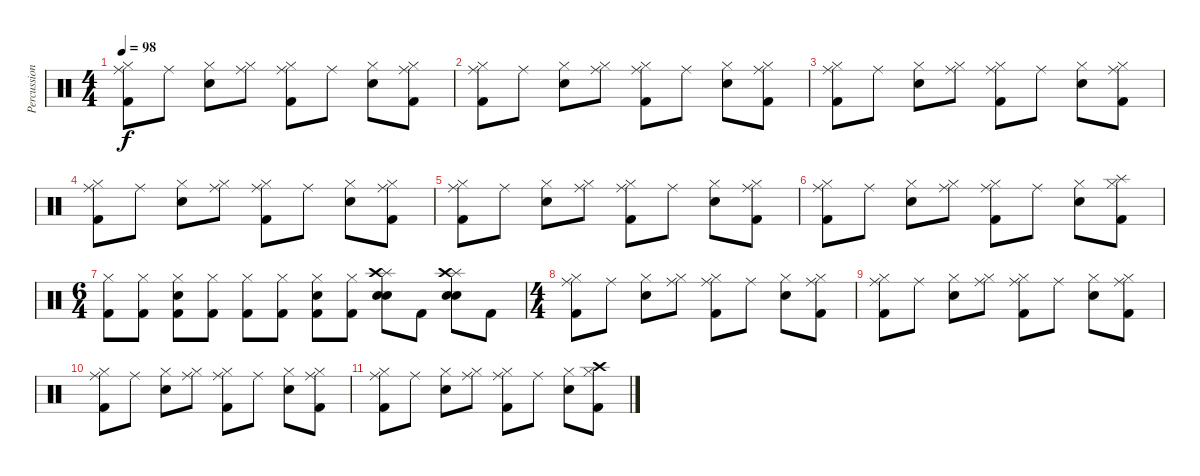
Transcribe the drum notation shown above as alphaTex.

\track ("Percussion" "Percussion") {instrument percussion}
\staff {score}
\articulation defaults
\ts (4 4)
\tempo 98
\clef neutral
\ks c
("Hi-Hat (closed)" "Kick (hit) 2" "Ride (middle)").8{dy f} "Ride (middle)".8 ("Hi-Hat (closed)" "Electric Snare (hit)").8 ("Hi-Hat (closed)" "Ride (middle)").8 ("Hi-Hat (closed)" "Kick (hit) 2" "Ride (middle)").8 "Ride (middle)".8 ("Hi-Hat (closed)" "Electric Snare (hit)").8 ("Hi-Hat (closed)" "Kick (hit) 2" "Ride (middle)").8 |
("Hi-Hat (closed)" "Kick (hit) 2" "Ride (middle)").8 "Ride (middle)".8 ("Hi-Hat (closed)" "Electric Snare (hit)").8 ("Hi-Hat (closed)" "Ride (middle)").8 ("Hi-Hat (closed)" "Kick (hit) 2" "Ride (middle)").8 "Ride (middle)".8 ("Hi-Hat (closed)" "Electric Snare (hit)").8 ("Hi-Hat (closed)" "Kick (hit) 2" "Ride (middle)").8 |
("Hi-Hat (closed)" "Kick (hit) 2" "Ride (middle)").8 "Ride (middle)".8 ("Hi-Hat (closed)" "Electric Snare (hit)").8 ("Hi-Hat (closed)" "Ride (middle)").8 ("Hi-Hat (closed)" "Kick (hit) 2" "Ride (middle)").8 "Ride (middle)".8 ("Hi-Hat (closed)" "Electric Snare (hit)").8 ("Hi-Hat (closed)" "Kick (hit) 2" "Ride (middle)").8 |
("Hi-Hat (closed)" "Kick (hit) 2" "Ride (middle)").8 "Ride (middle)".8 ("Hi-Hat (closed)" "Electric Snare (hit)").8 ("Hi-Hat (closed)" "Ride (middle)").8 ("Hi-Hat (closed)" "Kick (hit) 2" "Ride (middle)").8 "Ride (middle)".8 ("Hi-Hat (closed)" "Electric Snare (hit)").8 ("Hi-Hat (closed)" "Kick (hit) 2" "Ride (middle)").8 |
("Hi-Hat (closed)" "Kick (hit) 2" "Ride (middle)").8 "Ride (middle)".8 ("Hi-Hat (closed)" "Electric Snare (hit)").8 ("Hi-Hat (closed)" "Ride (middle)").8 ("Hi-Hat (closed)" "Kick (hit) 2" "Ride (middle)").8 "Ride (middle)".8 ("Hi-Hat (closed)" "Electric Snare (hit)").8 ("Hi-Hat (closed)" "Kick (hit) 2" "Ride (middle)").8 |
("Hi-Hat (closed)" "Kick (hit) 2" "Ride (middle)").8 "Ride (middle)".8 ("Hi-Hat (closed)" "Electric Snare (hit)").8 ("Hi-Hat (closed)" "Ride (middle)").8 ("Hi-Hat (closed)" "Kick (hit) 2" "Ride (middle)").8 "Ride (middle)".8 ("Hi-Hat (closed)" "Electric Snare (hit)").8 ("Hi-Hat (closed)" "Kick (hit) 2" "Splash (hit)").8 |
\ts (6 4)
("Hi-Hat (closed)" "Kick (hit) 2").8 ("Hi-Hat (closed)" "Kick (hit) 2").8 ("Hi-Hat (closed)" "Kick (hit) 2" "Electric Snare (hit)").8 ("Hi-Hat (closed)" "Kick (hit) 2").8 ("Hi-Hat (closed)" "Kick (hit) 2").8 ("Hi-Hat (closed)" "Kick (hit) 2").8 ("Hi-Hat (closed)" "Kick (hit) 2" "Electric Snare (hit)").8 ("Hi-Hat (closed)" "Kick (hit) 2").8 ("Splash (hit)" "Snare (hit) 2" "Electric Snare (hit)" "Crash high (hit)").8 "Kick (hit) 2".8 ("Splash (hit)" "Snare (hit) 2" "Electric Snare (hit)" "Crash high (hit)").8 "Kick (hit) 2".8 |
\ts (4 4)
("Hi-Hat (closed)" "Kick (hit) 2" "Ride (middle)").8 "Ride (middle)".8 ("Hi-Hat (closed)" "Electric Snare (hit)").8 ("Hi-Hat (closed)" "Ride (middle)").8 ("Hi-Hat (closed)" "Kick (hit) 2" "Ride (middle)").8 "Ride (middle)".8 ("Hi-Hat (closed)" "Electric Snare (hit)").8 ("Hi-Hat (closed)" "Kick (hit) 2" "Ride (middle)").8 |
("Hi-Hat (closed)" "Kick (hit) 2" "Ride (middle)").8 "Ride (middle)".8 ("Hi-Hat (closed)" "Electric Snare (hit)").8 ("Hi-Hat (closed)" "Ride (middle)").8 ("Hi-Hat (closed)" "Kick (hit) 2" "Ride (middle)").8 "Ride (middle)".8 ("Hi-Hat (closed)" "Electric Snare (hit)").8 ("Hi-Hat (closed)" "Kick (hit) 2" "Ride (middle)").8 |
("Hi-Hat (closed)" "Kick (hit) 2" "Ride (middle)").8 "Ride (middle)".8 ("Hi-Hat (closed)" "Electric Snare (hit)").8 ("Hi-Hat (closed)" "Ride (middle)").8 ("Hi-Hat (closed)" "Kick (hit) 2" "Ride (middle)").8 "Ride (middle)".8 ("Hi-Hat (closed)" "Electric Snare (hit)").8 ("Hi-Hat (closed)" "Kick (hit) 2" "Ride (middle)").8 |
("Hi-Hat (closed)" "Kick (hit) 2" "Ride (middle)").8 "Ride (middle)".8 ("Hi-Hat (closed)" "Electric Snare (hit)").8 ("Hi-Hat (closed)" "Ride (middle)").8 ("Hi-Hat (closed)" "Kick (hit) 2" "Ride (middle)").8 "Ride (middle)".8 ("Hi-Hat (closed)" "Electric Snare (hit)").8 ("Hi-Hat (closed)" "Kick (hit) 2" "Crash high (hit)").8
